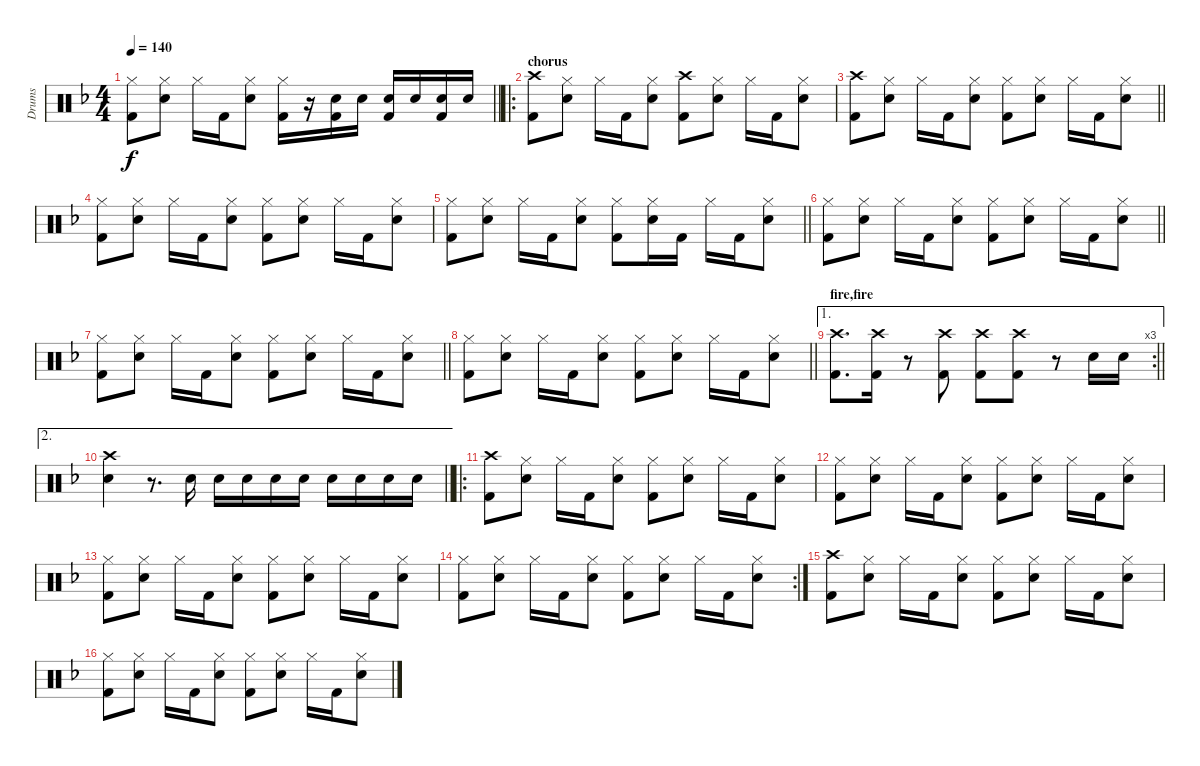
\track ("Drums" "Drums") {instrument percussion}
\staff {score}
\articulation defaults
\ts (4 4)
\tempo 140
\clef neutral
\barLineRight lightlight
\ks dminor
("Hi-Hat (closed)" "Kick (hit) 2").8{dy f} ("Hi-Hat (closed)" "Snare (hit) 2").8 "Hi-Hat (closed)".16 "Kick (hit) 2".16 ("Hi-Hat (closed)" "Snare (hit) 2").8 ("Hi-Hat (closed)" "Kick (hit) 2").16 r.16 ("Snare (hit) 2" "Kick (hit) 2").16 "Snare (hit) 2".16 ("Snare (hit) 2" "Kick (hit) 2").16 "Snare (hit) 2".16 ("Snare (hit) 2" "Kick (hit) 2").16 "Snare (hit) 2".16 |
\ro
\section ("" "chorus")
("Crash high (hit)" "Kick (hit) 2").8 ("Hi-Hat (closed)" "Snare (hit) 2").8 "Hi-Hat (closed)".16 "Kick (hit) 2".16 ("Hi-Hat (closed)" "Snare (hit) 2").8 ("Crash high (hit)" "Kick (hit) 2").8 ("Hi-Hat (closed)" "Snare (hit) 2").8 "Hi-Hat (closed)".16 "Kick (hit) 2".16 ("Hi-Hat (closed)" "Snare (hit) 2").8 |
\barLineRight lightlight
("Crash high (hit)" "Kick (hit) 2").8 ("Hi-Hat (closed)" "Snare (hit) 2").8 "Hi-Hat (closed)".16 "Kick (hit) 2".16 ("Hi-Hat (closed)" "Snare (hit) 2").8 ("Hi-Hat (closed)" "Kick (hit) 2").8 ("Hi-Hat (closed)" "Snare (hit) 2").8 "Hi-Hat (closed)".16 "Kick (hit) 2".16 ("Hi-Hat (closed)" "Snare (hit) 2").8 |
("Hi-Hat (closed)" "Kick (hit) 2").8 ("Hi-Hat (closed)" "Snare (hit) 2").8 "Hi-Hat (closed)".16 "Kick (hit) 2".16 ("Hi-Hat (closed)" "Snare (hit) 2").8 ("Hi-Hat (closed)" "Kick (hit) 2").8 ("Hi-Hat (closed)" "Snare (hit) 2").8 "Hi-Hat (closed)".16 "Kick (hit) 2".16 ("Hi-Hat (closed)" "Snare (hit) 2").8 |
\barLineRight lightlight
("Hi-Hat (closed)" "Kick (hit) 2").8 ("Hi-Hat (closed)" "Snare (hit) 2").8 "Hi-Hat (closed)".16 "Kick (hit) 2".16 ("Hi-Hat (closed)" "Snare (hit) 2").8 ("Hi-Hat (closed)" "Kick (hit) 2").8 ("Hi-Hat (closed)" "Snare (hit) 2").16 "Kick (hit) 2".16 "Hi-Hat (closed)".16 "Kick (hit) 2".16 ("Hi-Hat (closed)" "Snare (hit) 2").8 |
\barLineRight lightlight
("Hi-Hat (closed)" "Kick (hit) 2").8 ("Hi-Hat (closed)" "Snare (hit) 2").8 "Hi-Hat (closed)".16 "Kick (hit) 2".16 ("Hi-Hat (closed)" "Snare (hit) 2").8 ("Hi-Hat (closed)" "Kick (hit) 2").8 ("Hi-Hat (closed)" "Snare (hit) 2").8 "Hi-Hat (closed)".16 "Kick (hit) 2".16 ("Hi-Hat (closed)" "Snare (hit) 2").8 |
\section ("" "")
\barLineRight lightlight
("Hi-Hat (closed)" "Kick (hit) 2").8 ("Hi-Hat (closed)" "Snare (hit) 2").8 "Hi-Hat (closed)".16 "Kick (hit) 2".16 ("Hi-Hat (closed)" "Snare (hit) 2").8 ("Hi-Hat (closed)" "Kick (hit) 2").8 ("Hi-Hat (closed)" "Snare (hit) 2").8 "Hi-Hat (closed)".16 "Kick (hit) 2".16 ("Hi-Hat (closed)" "Snare (hit) 2").8 |
\barLineRight lightlight
("Hi-Hat (closed)" "Kick (hit) 2").8 ("Hi-Hat (closed)" "Snare (hit) 2").8 "Hi-Hat (closed)".16 "Kick (hit) 2".16 ("Hi-Hat (closed)" "Snare (hit) 2").8 ("Hi-Hat (closed)" "Kick (hit) 2").8 ("Hi-Hat (closed)" "Snare (hit) 2").8 "Hi-Hat (closed)".16 "Kick (hit) 2".16 ("Hi-Hat (closed)" "Snare (hit) 2").8 |
\ae 1
\rc 3
\section ("" "fire,fire")
\barLineRight lightlight
("Crash high (hit)" "Kick (hit) 2").8{d} ("Crash high (hit)" "Kick (hit) 2").16 r.8 ("Crash high (hit)" "Kick (hit) 2").8 ("Crash high (hit)" "Kick (hit) 2").8 ("Crash high (hit)" "Kick (hit) 2").8 r.8 "Snare (hit) 2".16 "Snare (hit) 2".16 |
\ae 2
\barLineRight lightlight
("Crash high (hit)" "Snare (hit) 2").4 r.8{d} "Snare (hit) 2".16 "Snare (hit) 2".16 "Snare (hit) 2".16 "Snare (hit) 2".16 "Snare (hit) 2".16 "Snare (hit) 2".16 "Snare (hit) 2".16 "Snare (hit) 2".16 "Snare (hit) 2".16 |
\ro
("Crash high (hit)" "Kick (hit) 2").8 ("Hi-Hat (closed)" "Snare (hit) 2").8 "Hi-Hat (closed)".16 "Kick (hit) 2".16 ("Hi-Hat (closed)" "Snare (hit) 2").8 ("Hi-Hat (closed)" "Kick (hit) 2").8 ("Hi-Hat (closed)" "Snare (hit) 2").8 "Hi-Hat (closed)".16 "Kick (hit) 2".16 ("Hi-Hat (closed)" "Snare (hit) 2").8 |
("Hi-Hat (closed)" "Kick (hit) 2").8 ("Hi-Hat (closed)" "Snare (hit) 2").8 "Hi-Hat (closed)".16 "Kick (hit) 2".16 ("Hi-Hat (closed)" "Snare (hit) 2").8 ("Hi-Hat (closed)" "Kick (hit) 2").8 ("Hi-Hat (closed)" "Snare (hit) 2").8 "Hi-Hat (closed)".16 "Kick (hit) 2".16 ("Hi-Hat (closed)" "Snare (hit) 2").8 |
("Hi-Hat (closed)" "Kick (hit) 2").8 ("Hi-Hat (closed)" "Snare (hit) 2").8 "Hi-Hat (closed)".16 "Kick (hit) 2".16 ("Hi-Hat (closed)" "Snare (hit) 2").8 ("Hi-Hat (closed)" "Kick (hit) 2").8 ("Hi-Hat (closed)" "Snare (hit) 2").8 "Hi-Hat (closed)".16 "Kick (hit) 2".16 ("Hi-Hat (closed)" "Snare (hit) 2").8 |
\rc 2
("Hi-Hat (closed)" "Kick (hit) 2").8 ("Hi-Hat (closed)" "Snare (hit) 2").8 "Hi-Hat (closed)".16 "Kick (hit) 2".16 ("Hi-Hat (closed)" "Snare (hit) 2").8 ("Hi-Hat (closed)" "Kick (hit) 2").8 ("Hi-Hat (closed)" "Snare (hit) 2").8 "Hi-Hat (closed)".16 "Kick (hit) 2".16 ("Hi-Hat (closed)" "Snare (hit) 2").8 |
("Crash high (hit)" "Kick (hit) 2").8 ("Hi-Hat (closed)" "Snare (hit) 2").8 "Hi-Hat (closed)".16 "Kick (hit) 2".16 ("Hi-Hat (closed)" "Snare (hit) 2").8 ("Hi-Hat (closed)" "Kick (hit) 2").8 ("Hi-Hat (closed)" "Snare (hit) 2").8 "Hi-Hat (closed)".16 "Kick (hit) 2".16 ("Hi-Hat (closed)" "Snare (hit) 2").8 |
("Hi-Hat (closed)" "Kick (hit) 2").8 ("Hi-Hat (closed)" "Snare (hit) 2").8 "Hi-Hat (closed)".16 "Kick (hit) 2".16 ("Hi-Hat (closed)" "Snare (hit) 2").8 ("Hi-Hat (closed)" "Kick (hit) 2").8 ("Hi-Hat (closed)" "Snare (hit) 2").8 "Hi-Hat (closed)".16 "Kick (hit) 2".16 ("Hi-Hat (closed)" "Snare (hit) 2").8
